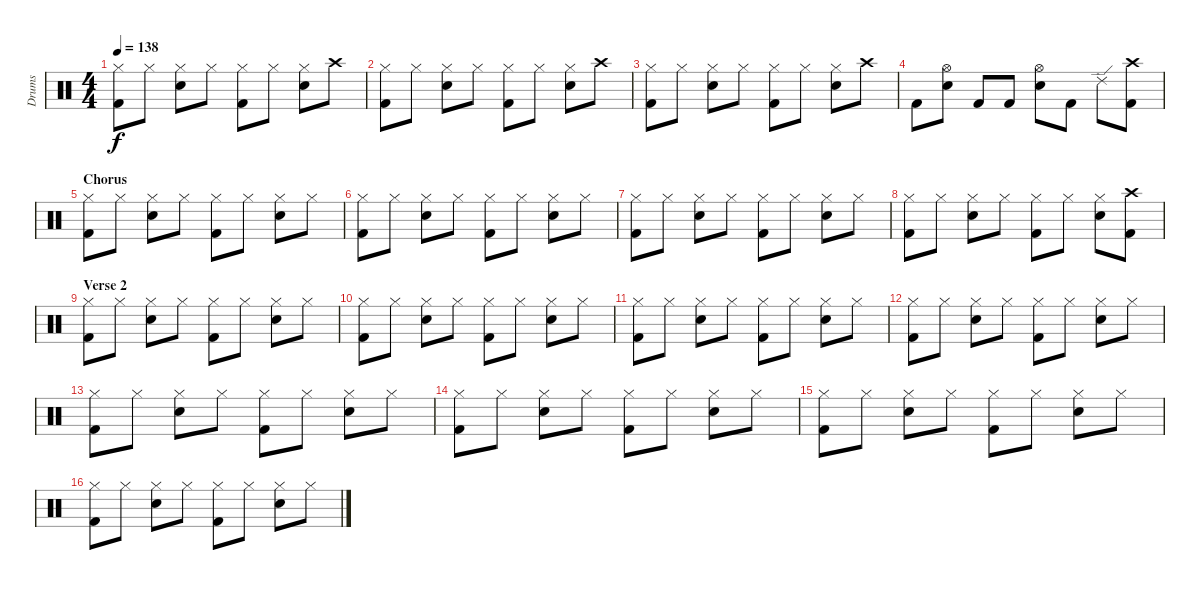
\track ("Drums" "Drums") {instrument percussion}
\staff {score}
\articulation defaults
\ts (4 4)
\tempo 138
\clef neutral
\ks c
("Hi-Hat (closed)" "Kick (hit) 2").8{dy f} "Hi-Hat (closed)".8 ("Hi-Hat (closed)" "Snare (hit) 2").8 "Hi-Hat (closed)".8 ("Hi-Hat (closed)" "Kick (hit) 2").8 "Hi-Hat (closed)".8 ("Hi-Hat (closed)" "Snare (hit) 2").8 "Crash high (hit)".8 |
("Hi-Hat (closed)" "Kick (hit) 2").8 "Hi-Hat (closed)".8 ("Hi-Hat (closed)" "Snare (hit) 2").8 "Hi-Hat (closed)".8 ("Hi-Hat (closed)" "Kick (hit) 2").8 "Hi-Hat (closed)".8 ("Hi-Hat (closed)" "Snare (hit) 2").8 "Crash high (hit)".8 |
("Hi-Hat (closed)" "Kick (hit) 2").8 "Hi-Hat (closed)".8 ("Hi-Hat (closed)" "Snare (hit) 2").8 "Hi-Hat (closed)".8 ("Hi-Hat (closed)" "Kick (hit) 2").8 "Hi-Hat (closed)".8 ("Hi-Hat (closed)" "Snare (hit) 2").8 "Crash high (hit)".8 |
"Kick (hit) 2".8 ("Hi-Hat (open)" "Snare (hit) 2").8 "Kick (hit) 2".8 "Kick (hit) 2".8 ("Hi-Hat (open)" "Snare (hit) 2").8 "Kick (hit) 2".8 "Ride (edge) 2".8 ("Crash high (hit)" "Kick (hit) 2").8 |
\section ("" "Chorus")
("Hi-Hat (closed)" "Kick (hit) 2").8 "Hi-Hat (closed)".8 ("Hi-Hat (closed)" "Snare (hit) 2").8 "Hi-Hat (closed)".8 ("Hi-Hat (closed)" "Kick (hit) 2").8 "Hi-Hat (closed)".8 ("Hi-Hat (closed)" "Snare (hit) 2").8 "Hi-Hat (closed)".8 |
("Hi-Hat (closed)" "Kick (hit) 2").8 "Hi-Hat (closed)".8 ("Hi-Hat (closed)" "Snare (hit) 2").8 "Hi-Hat (closed)".8 ("Hi-Hat (closed)" "Kick (hit) 2").8 "Hi-Hat (closed)".8 ("Hi-Hat (closed)" "Snare (hit) 2").8 "Hi-Hat (closed)".8 |
("Hi-Hat (closed)" "Kick (hit) 2").8 "Hi-Hat (closed)".8 ("Hi-Hat (closed)" "Snare (hit) 2").8 "Hi-Hat (closed)".8 ("Hi-Hat (closed)" "Kick (hit) 2").8 "Hi-Hat (closed)".8 ("Hi-Hat (closed)" "Snare (hit) 2").8 "Hi-Hat (closed)".8 |
("Hi-Hat (closed)" "Kick (hit) 2").8 "Hi-Hat (closed)".8 ("Hi-Hat (closed)" "Snare (hit) 2").8 "Hi-Hat (closed)".8 ("Hi-Hat (closed)" "Kick (hit) 2").8 "Hi-Hat (closed)".8 ("Hi-Hat (closed)" "Snare (hit) 2").8 ("Crash high (hit)" "Kick (hit) 2").8 |
\section ("" "Verse 2")
("Hi-Hat (closed)" "Kick (hit) 2").8 "Hi-Hat (closed)".8 ("Hi-Hat (closed)" "Snare (hit) 2").8 "Hi-Hat (closed)".8 ("Hi-Hat (closed)" "Kick (hit) 2").8 "Hi-Hat (closed)".8 ("Hi-Hat (closed)" "Snare (hit) 2").8 "Hi-Hat (closed)".8 |
("Hi-Hat (closed)" "Kick (hit) 2").8 "Hi-Hat (closed)".8 ("Hi-Hat (closed)" "Snare (hit) 2").8 "Hi-Hat (closed)".8 ("Hi-Hat (closed)" "Kick (hit) 2").8 "Hi-Hat (closed)".8 ("Hi-Hat (closed)" "Snare (hit) 2").8 "Hi-Hat (closed)".8 |
("Hi-Hat (closed)" "Kick (hit) 2").8 "Hi-Hat (closed)".8 ("Hi-Hat (closed)" "Snare (hit) 2").8 "Hi-Hat (closed)".8 ("Hi-Hat (closed)" "Kick (hit) 2").8 "Hi-Hat (closed)".8 ("Hi-Hat (closed)" "Snare (hit) 2").8 "Hi-Hat (closed)".8 |
("Hi-Hat (closed)" "Kick (hit) 2").8 "Hi-Hat (closed)".8 ("Hi-Hat (closed)" "Snare (hit) 2").8 "Hi-Hat (closed)".8 ("Hi-Hat (closed)" "Kick (hit) 2").8 "Hi-Hat (closed)".8 ("Hi-Hat (closed)" "Snare (hit) 2").8 "Hi-Hat (closed)".8 |
("Hi-Hat (closed)" "Kick (hit) 2").8 "Hi-Hat (closed)".8 ("Hi-Hat (closed)" "Snare (hit) 2").8 "Hi-Hat (closed)".8 ("Hi-Hat (closed)" "Kick (hit) 2").8 "Hi-Hat (closed)".8 ("Hi-Hat (closed)" "Snare (hit) 2").8 "Hi-Hat (closed)".8 |
("Hi-Hat (closed)" "Kick (hit) 2").8 "Hi-Hat (closed)".8 ("Hi-Hat (closed)" "Snare (hit) 2").8 "Hi-Hat (closed)".8 ("Hi-Hat (closed)" "Kick (hit) 2").8 "Hi-Hat (closed)".8 ("Hi-Hat (closed)" "Snare (hit) 2").8 "Hi-Hat (closed)".8 |
("Hi-Hat (closed)" "Kick (hit) 2").8 "Hi-Hat (closed)".8 ("Hi-Hat (closed)" "Snare (hit) 2").8 "Hi-Hat (closed)".8 ("Hi-Hat (closed)" "Kick (hit) 2").8 "Hi-Hat (closed)".8 ("Hi-Hat (closed)" "Snare (hit) 2").8 "Hi-Hat (closed)".8 |
("Hi-Hat (closed)" "Kick (hit) 2").8 "Hi-Hat (closed)".8 ("Hi-Hat (closed)" "Snare (hit) 2").8 "Hi-Hat (closed)".8 ("Hi-Hat (closed)" "Kick (hit) 2").8 "Hi-Hat (closed)".8 ("Hi-Hat (closed)" "Snare (hit) 2").8 "Hi-Hat (closed)".8
